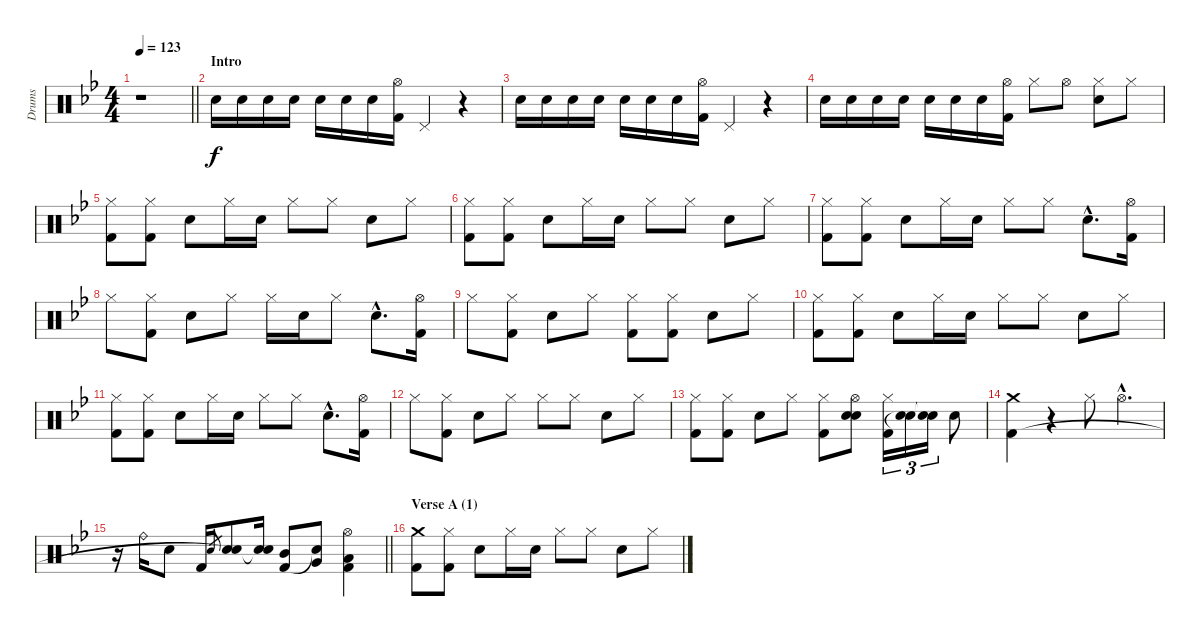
\track ("Drums" "Drums") {instrument percussion}
\staff {score}
\articulation defaults
\ts (4 4)
\tempo 123
\clef neutral
\barLineRight lightlight
\ks gminor
r.1{dy f} |
\section ("" "Intro")
"Electric Snare (hit)".16 "Electric Snare (hit)".16 "Electric Snare (hit)".16 "Electric Snare (hit)".16 "Electric Snare (hit)".16 "Electric Snare (hit)".16 "Electric Snare (hit)".16 ("Hi-Hat (open)" "Kick (hit) 2").16 "Pedal Hi-Hat (hit)".4 r.4 |
"Electric Snare (hit)".16 "Electric Snare (hit)".16 "Electric Snare (hit)".16 "Electric Snare (hit)".16 "Electric Snare (hit)".16 "Electric Snare (hit)".16 "Electric Snare (hit)".16 ("Hi-Hat (open)" "Kick (hit) 2").16 "Pedal Hi-Hat (hit)".4 r.4 |
"Electric Snare (hit)".16 "Electric Snare (hit)".16 "Electric Snare (hit)".16 "Electric Snare (hit)".16 "Electric Snare (hit)".16 "Electric Snare (hit)".16 "Electric Snare (hit)".16 ("Hi-Hat (open)" "Kick (hit) 2").16 "Hi-Hat (closed)".8 "Hi-Hat (open)".8 ("Hi-Hat (closed)" "Electric Snare (hit)").8 "Hi-Hat (closed)".8 |
("Hi-Hat (closed)" "Kick (hit) 2").8 ("Hi-Hat (closed)" "Kick (hit) 2").8 "Electric Snare (hit)".8 "Hi-Hat (closed)".16 "Electric Snare (hit)".16 "Hi-Hat (closed)".8 "Hi-Hat (closed)".8 "Electric Snare (hit)".8 "Hi-Hat (closed)".8 |
("Hi-Hat (closed)" "Kick (hit) 2").8 ("Hi-Hat (closed)" "Kick (hit) 2").8 "Electric Snare (hit)".8 "Hi-Hat (closed)".16 "Electric Snare (hit)".16 "Hi-Hat (closed)".8 "Hi-Hat (closed)".8 "Electric Snare (hit)".8 "Hi-Hat (closed)".8 |
("Hi-Hat (closed)" "Kick (hit) 2").8 ("Hi-Hat (closed)" "Kick (hit) 2").8 "Electric Snare (hit)".8 "Hi-Hat (closed)".16 "Electric Snare (hit)".16 "Hi-Hat (closed)".8 "Hi-Hat (closed)".8 "Electric Snare (hit)"{hac}.8{d} ("Hi-Hat (open)" "Kick (hit) 2").16 |
"Hi-Hat (closed)".8 ("Hi-Hat (closed)" "Kick (hit) 2").8 "Electric Snare (hit)".8 "Hi-Hat (closed)".8 "Hi-Hat (closed)".16 "Electric Snare (hit)".16 "Hi-Hat (closed)".8 "Electric Snare (hit)"{hac}.8{d} ("Hi-Hat (open)" "Kick (hit) 2").16 |
"Hi-Hat (closed)".8 ("Hi-Hat (closed)" "Kick (hit) 2").8 "Electric Snare (hit)".8 "Hi-Hat (closed)".8 ("Hi-Hat (closed)" "Kick (hit) 2").8 ("Hi-Hat (closed)" "Kick (hit) 2").8 "Electric Snare (hit)".8 "Hi-Hat (closed)".8 |
("Hi-Hat (closed)" "Kick (hit) 2").8 ("Hi-Hat (closed)" "Kick (hit) 2").8 "Electric Snare (hit)".8 "Hi-Hat (closed)".16 "Electric Snare (hit)".16 "Hi-Hat (closed)".8 "Hi-Hat (closed)".8 "Electric Snare (hit)".8 "Hi-Hat (closed)".8 |
("Hi-Hat (closed)" "Kick (hit) 2").8 ("Hi-Hat (closed)" "Kick (hit) 2").8 "Electric Snare (hit)".8 "Hi-Hat (closed)".16 "Electric Snare (hit)".16 "Hi-Hat (closed)".8 "Hi-Hat (closed)".8 "Electric Snare (hit)"{hac}.8{d} ("Hi-Hat (open)" "Kick (hit) 2").16 |
"Hi-Hat (closed)".8 ("Hi-Hat (closed)" "Kick (hit) 2").8 "Electric Snare (hit)".8 "Hi-Hat (closed)".8 "Hi-Hat (closed)".8 "Hi-Hat (closed)".8 "Electric Snare (hit)".8 "Hi-Hat (closed)".8 |
("Hi-Hat (closed)" "Kick (hit) 2").8 ("Hi-Hat (closed)" "Kick (hit) 2").8 "Electric Snare (hit)".8 "Hi-Hat (closed)".8 ("Hi-Hat (closed)" "Kick (hit) 2").8 ("Hi-Hat (open)" "Electric Snare (hit)" "Snare (hit)").8 ("Hi-Hat (closed)" "Kick (hit) 2").16{tu (3 2)} ("Electric Snare (hit)" "Snare (hit)"{t}).16{tu (3 2)} ("Electric Snare (hit)" "Snare (hit)"{t}).16{tu (3 2)} "Electric Snare (hit)".8 |
("Crash medium (hit)" "Kick (hit) 2").4 r.4 "Hi-Hat (closed)".8 "Hi-Hat (open)"{hac}.4{d} |
\barLineRight lightlight
r.16 "Ride (bell)".16 "Electric Snare (hit)".8 "Kick (hit) 2".16 "Electric Snare (hit)".8{gr} ("Electric Snare (hit)" "Snare (hit)"{t}).8 ("Electric Snare (hit)" "Snare (hit)"{t}).16 ("Mid Tom (hit)" "Kick (hit) 2").8 ("Very Low Tom (hit)" "Snare (hit)"{t}).8 ("Hi-Hat (open)" "Low Floor Tom (hit)" "Kick (hit) 2").4 |
\section ("" "Verse A (1)")
("Crash medium (hit)" "Kick (hit) 2").8 ("Hi-Hat (closed)" "Kick (hit) 2").8 "Electric Snare (hit)".8 "Hi-Hat (closed)".16 "Electric Snare (hit)".16 "Hi-Hat (closed)".8 "Hi-Hat (closed)".8 "Electric Snare (hit)".8 "Hi-Hat (closed)".8
